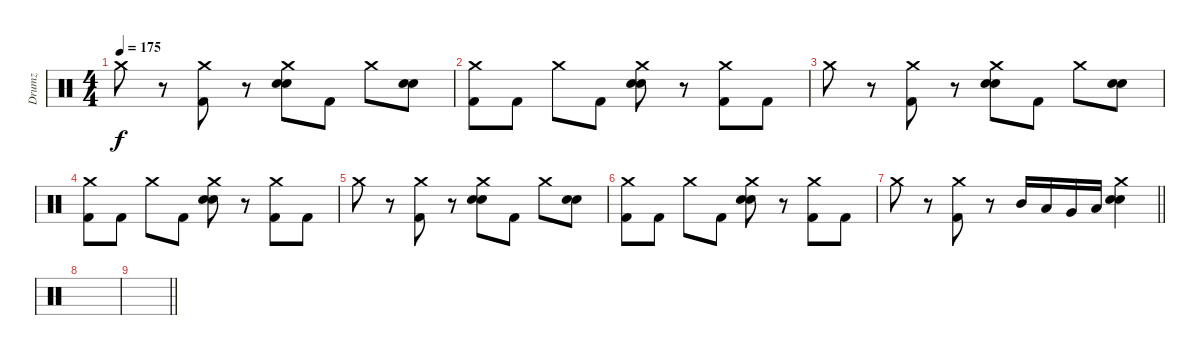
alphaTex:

\track ("Drumz" "Drumz") {instrument percussion}
\staff {score}
\articulation defaults
\ts (4 4)
\tempo 175
\clef neutral
\ks c "Crash medium (hit)".8{dy f}
r.8 ("Crash medium (hit)" "Kick (hit) 2").8 r.8 ("Crash medium (hit)" "Electric Snare (hit)" "Electric Snare (hit)").8 "Kick (hit) 2".8 "Crash medium (hit)".8 ("Electric Snare (hit)" "Electric Snare (hit)").8 |
("Crash medium (hit)" "Kick (hit) 2").8 "Kick (hit) 2".8 "Crash medium (hit)".8 "Kick (hit) 2".8 ("Crash medium (hit)" "Electric Snare (hit)" "Electric Snare (hit)").8 r.8 ("Crash medium (hit)" "Kick (hit) 2").8 "Kick (hit) 2".8 |
"Crash medium (hit)".8 r.8 ("Crash medium (hit)" "Kick (hit) 2").8 r.8 ("Crash medium (hit)" "Electric Snare (hit)" "Electric Snare (hit)").8 "Kick (hit) 2".8 "Crash medium (hit)".8 ("Electric Snare (hit)" "Electric Snare (hit)").8 |
("Crash medium (hit)" "Kick (hit) 2").8 "Kick (hit) 2".8 "Crash medium (hit)".8 "Kick (hit) 2".8 ("Crash medium (hit)" "Electric Snare (hit)" "Electric Snare (hit)").8 r.8 ("Crash medium (hit)" "Kick (hit) 2").8 "Kick (hit) 2".8 |
"Crash medium (hit)".8 r.8 ("Crash medium (hit)" "Kick (hit) 2").8 r.8 ("Crash medium (hit)" "Electric Snare (hit)" "Electric Snare (hit)").8 "Kick (hit) 2".8 "Crash medium (hit)".8 ("Electric Snare (hit)" "Electric Snare (hit)").8 |
("Crash medium (hit)" "Kick (hit) 2").8 "Kick (hit) 2".8 "Crash medium (hit)".8 "Kick (hit) 2".8 ("Crash medium (hit)" "Electric Snare (hit)" "Electric Snare (hit)").8 r.8 ("Crash medium (hit)" "Kick (hit) 2").8 "Kick (hit) 2".8 |
\barLineRight lightlight "Crash medium (hit)".8
r.8 ("Crash medium (hit)" "Kick (hit) 2").8 r.8 "Mid Tom (hit)".16 "Low Tom (hit)".16 "Very Low Tom (hit)".16 "Low Floor Tom (hit)".16 ("Crash medium (hit)" "Electric Snare (hit)" "Electric Snare (hit)").4 |
|
\barLineRight lightlight
